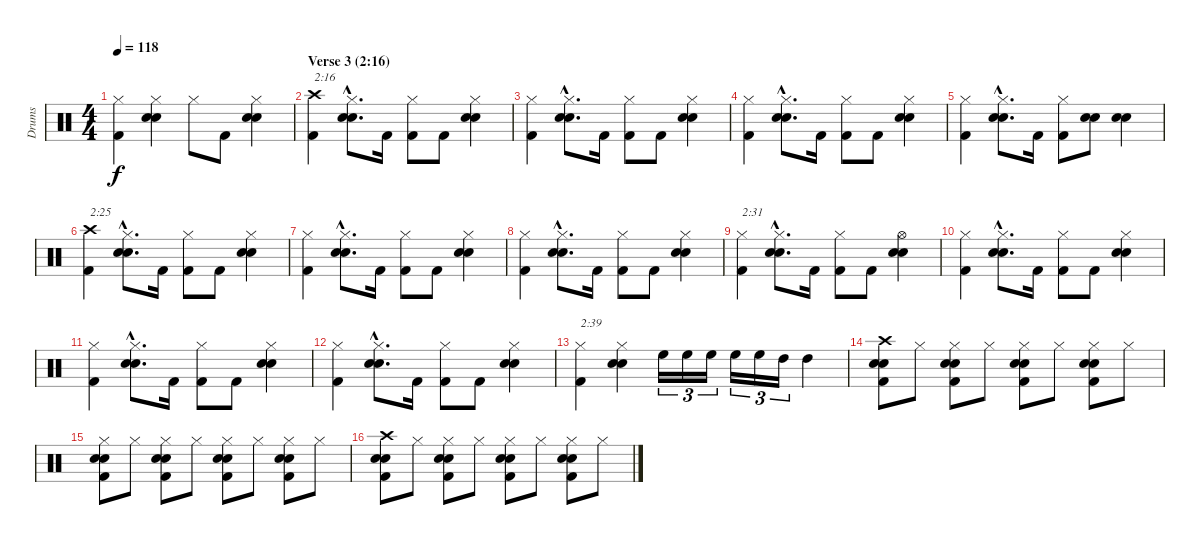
\track ("Drums" "Drums") {instrument percussion}
\staff {score}
\articulation defaults
\ts (4 4)
\tempo 118
\clef neutral
\ks c
("Hi-Hat (closed)" "Kick (hit) 2").4{dy f} ("Hi-Hat (closed)" "Electric Snare (hit)" "Snare (hit) 2").4 "Hi-Hat (closed)".8 "Kick (hit) 2".8 ("Hi-Hat (closed)" "Electric Snare (hit)" "Snare (hit) 2").4 |
\section ("" "Verse 3 (2:16)")
("Crash high (hit)" "Kick (hit) 2").4{txt "2:16"} ("Hi-Hat (closed)"{hac} "Electric Snare (hit)"{hac} "Snare (hit) 2"{hac}).8{d} "Kick (hit) 2".16 ("Hi-Hat (closed)" "Kick (hit) 2").8 "Kick (hit) 2".8 ("Hi-Hat (closed)" "Electric Snare (hit)" "Snare (hit) 2").4 |
("Hi-Hat (closed)" "Kick (hit) 2").4 ("Hi-Hat (closed)"{hac} "Electric Snare (hit)"{hac} "Snare (hit) 2"{hac}).8{d} "Kick (hit) 2".16 ("Hi-Hat (closed)" "Kick (hit) 2").8 "Kick (hit) 2".8 ("Hi-Hat (closed)" "Electric Snare (hit)" "Snare (hit) 2").4 |
("Hi-Hat (closed)" "Kick (hit) 2").4 ("Hi-Hat (closed)"{hac} "Electric Snare (hit)"{hac} "Snare (hit) 2"{hac}).8{d} "Kick (hit) 2".16 ("Hi-Hat (closed)" "Kick (hit) 2").8 "Kick (hit) 2".8 ("Hi-Hat (closed)" "Electric Snare (hit)" "Snare (hit) 2").4 |
("Hi-Hat (closed)" "Kick (hit) 2").4 ("Hi-Hat (closed)"{hac} "Electric Snare (hit)"{hac} "Snare (hit) 2"{hac}).8{d} "Kick (hit) 2".16 ("Hi-Hat (closed)" "Kick (hit) 2").8 ("Electric Snare (hit)" "Snare (hit) 2").8 ("Electric Snare (hit)" "Snare (hit) 2").4 |
("Crash high (hit)" "Kick (hit) 2").4{txt "2:25"} ("Hi-Hat (closed)"{hac} "Electric Snare (hit)"{hac} "Snare (hit) 2"{hac}).8{d} "Kick (hit) 2".16 ("Hi-Hat (closed)" "Kick (hit) 2").8 "Kick (hit) 2".8 ("Hi-Hat (closed)" "Electric Snare (hit)" "Snare (hit) 2").4 |
("Hi-Hat (closed)" "Kick (hit) 2").4 ("Hi-Hat (closed)"{hac} "Electric Snare (hit)"{hac} "Snare (hit) 2"{hac}).8{d} "Kick (hit) 2".16 ("Hi-Hat (closed)" "Kick (hit) 2").8 "Kick (hit) 2".8 ("Hi-Hat (closed)" "Electric Snare (hit)" "Snare (hit) 2").4 |
("Hi-Hat (closed)" "Kick (hit) 2").4 ("Hi-Hat (closed)"{hac} "Electric Snare (hit)"{hac} "Snare (hit) 2"{hac}).8{d} "Kick (hit) 2".16 ("Hi-Hat (closed)" "Kick (hit) 2").8 "Kick (hit) 2".8 ("Hi-Hat (closed)" "Electric Snare (hit)" "Snare (hit) 2").4 |
("Hi-Hat (closed)" "Kick (hit) 2").4{txt "2:31"} ("Hi-Hat (closed)"{hac} "Electric Snare (hit)"{hac} "Snare (hit) 2"{hac}).8{d} "Kick (hit) 2".16 ("Hi-Hat (closed)" "Kick (hit) 2").8 "Kick (hit) 2".8 ("Hi-Hat (open)" "Electric Snare (hit)" "Snare (hit) 2").4 |
("Hi-Hat (closed)" "Kick (hit) 2").4 ("Hi-Hat (closed)"{hac} "Electric Snare (hit)"{hac} "Snare (hit) 2"{hac}).8{d} "Kick (hit) 2".16 ("Hi-Hat (closed)" "Kick (hit) 2").8 "Kick (hit) 2".8 ("Hi-Hat (closed)" "Electric Snare (hit)" "Snare (hit) 2").4 |
("Hi-Hat (closed)" "Kick (hit) 2").4 ("Hi-Hat (closed)"{hac} "Electric Snare (hit)"{hac} "Snare (hit) 2"{hac}).8{d} "Kick (hit) 2".16 ("Hi-Hat (closed)" "Kick (hit) 2").8 "Kick (hit) 2".8 ("Hi-Hat (closed)" "Electric Snare (hit)" "Snare (hit) 2").4 |
("Hi-Hat (closed)" "Kick (hit) 2").4 ("Hi-Hat (closed)"{hac} "Electric Snare (hit)"{hac} "Snare (hit) 2"{hac}).8{d} "Kick (hit) 2".16 ("Hi-Hat (closed)" "Kick (hit) 2").8 "Kick (hit) 2".8 ("Hi-Hat (closed)" "Electric Snare (hit)" "Snare (hit) 2").4 |
("Hi-Hat (closed)" "Kick (hit) 2").4{txt "2:39"} ("Hi-Hat (closed)" "Electric Snare (hit)" "Snare (hit) 2").4 "High Floor Tom (hit)".16{tu (3 2)} "High Floor Tom (hit)".16{tu (3 2)} "High Floor Tom (hit)".16{tu (3 2)} "High Floor Tom (hit)".16{tu (3 2)} "High Floor Tom (hit)".16{tu (3 2)} "High Tom (hit)".16{tu (3 2)} "High Tom (hit)".4 |
("Crash high (hit)" "Electric Snare (hit)" "Snare (hit) 2" "Kick (hit) 2").8 "Hi-Hat (closed)".8 ("Hi-Hat (closed)" "Electric Snare (hit)" "Snare (hit) 2" "Kick (hit) 2").8 "Hi-Hat (closed)".8 ("Hi-Hat (closed)" "Electric Snare (hit)" "Snare (hit) 2" "Kick (hit) 2").8 "Hi-Hat (closed)".8 ("Hi-Hat (closed)" "Electric Snare (hit)" "Snare (hit) 2" "Kick (hit) 2").8 "Hi-Hat (closed)".8 |
("Hi-Hat (closed)" "Electric Snare (hit)" "Snare (hit) 2" "Kick (hit) 2").8 "Hi-Hat (closed)".8 ("Hi-Hat (closed)" "Electric Snare (hit)" "Snare (hit) 2" "Kick (hit) 2").8 "Hi-Hat (closed)".8 ("Hi-Hat (closed)" "Electric Snare (hit)" "Snare (hit) 2" "Kick (hit) 2").8 "Hi-Hat (closed)".8 ("Hi-Hat (closed)" "Electric Snare (hit)" "Snare (hit) 2" "Kick (hit) 2").8 "Hi-Hat (closed)".8 |
("Crash high (hit)" "Electric Snare (hit)" "Snare (hit) 2" "Kick (hit) 2").8 "Hi-Hat (closed)".8 ("Hi-Hat (closed)" "Electric Snare (hit)" "Snare (hit) 2" "Kick (hit) 2").8 "Hi-Hat (closed)".8 ("Hi-Hat (closed)" "Electric Snare (hit)" "Snare (hit) 2" "Kick (hit) 2").8 "Hi-Hat (closed)".8 ("Hi-Hat (closed)" "Electric Snare (hit)" "Snare (hit) 2" "Kick (hit) 2").8 "Hi-Hat (closed)".8
